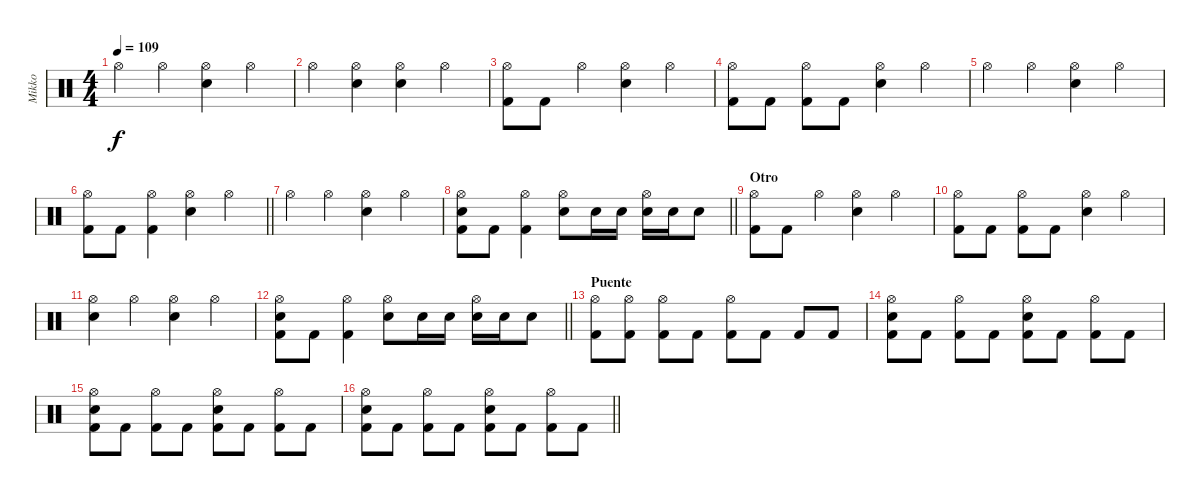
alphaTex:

\track ("Mikko" "Mikko") {instrument percussion}
\staff {score}
\articulation defaults
\ts (4 4)
\tempo 109
\clef neutral
\ks c "Hi-Hat (open)".4{dy f} "Hi-Hat (open)".4
("Hi-Hat (open)" "Snare (hit) 2").4 "Hi-Hat (open)".4 |
"Hi-Hat (open)".4 ("Hi-Hat (open)" "Snare (hit) 2").4 ("Hi-Hat (open)" "Snare (hit) 2").4 "Hi-Hat (open)".4 |
("Hi-Hat (open)" "Kick (hit) 2").8 "Kick (hit) 2".8 "Hi-Hat (open)".4 ("Hi-Hat (open)" "Snare (hit) 2").4 "Hi-Hat (open)".4 |
("Hi-Hat (open)" "Kick (hit) 2").8 "Kick (hit) 2".8 ("Hi-Hat (open)" "Kick (hit) 2").8 "Kick (hit) 2".8 ("Hi-Hat (open)" "Snare (hit) 2").4 "Hi-Hat (open)".4 |
"Hi-Hat (open)".4 "Hi-Hat (open)".4 ("Hi-Hat (open)" "Snare (hit) 2").4 "Hi-Hat (open)".4 |
\barLineRight lightlight
("Hi-Hat (open)" "Kick (hit) 2").8 "Kick (hit) 2".8 ("Hi-Hat (open)" "Kick (hit) 2").4 ("Hi-Hat (open)" "Snare (hit) 2").4 "Hi-Hat (open)".4 |
"Hi-Hat (open)".4 "Hi-Hat (open)".4 ("Hi-Hat (open)" "Snare (hit) 2").4 "Hi-Hat (open)".4 |
\barLineRight lightlight
("Hi-Hat (open)" "Snare (hit) 2" "Kick (hit) 2").8 "Kick (hit) 2".8 ("Hi-Hat (open)" "Kick (hit) 2").4 ("Hi-Hat (open)" "Snare (hit) 2").8 "Snare (hit) 2".16 "Snare (hit) 2".16 ("Hi-Hat (open)" "Snare (hit) 2").16 "Snare (hit) 2".16 "Snare (hit) 2".8 |
\section ("" "Otro")
("Hi-Hat (open)" "Kick (hit) 2").8 "Kick (hit) 2".8 "Hi-Hat (open)".4 ("Hi-Hat (open)" "Snare (hit) 2").4 "Hi-Hat (open)".4 |
("Hi-Hat (open)" "Kick (hit) 2").8 "Kick (hit) 2".8 ("Hi-Hat (open)" "Kick (hit) 2").8 "Kick (hit) 2".8 ("Hi-Hat (open)" "Snare (hit) 2").4 "Hi-Hat (open)".4 |
("Hi-Hat (open)" "Snare (hit) 2").4 "Hi-Hat (open)".4 ("Hi-Hat (open)" "Snare (hit) 2").4 "Hi-Hat (open)".4 |
\barLineRight lightlight
("Hi-Hat (open)" "Snare (hit) 2" "Kick (hit) 2").8 "Kick (hit) 2".8 ("Hi-Hat (open)" "Kick (hit) 2").4 ("Hi-Hat (open)" "Snare (hit) 2").8 "Snare (hit) 2".16 "Snare (hit) 2".16 ("Hi-Hat (open)" "Snare (hit) 2").16 "Snare (hit) 2".16 "Snare (hit) 2".8 |
\section ("" "Puente")
("Hi-Hat (open)" "Kick (hit) 2").8 ("Hi-Hat (open)" "Kick (hit) 2").8 ("Hi-Hat (open)" "Kick (hit) 2").8 "Kick (hit) 2".8 ("Hi-Hat (open)" "Kick (hit) 2").8 "Kick (hit) 2".8 "Kick (hit) 2".8 "Kick (hit) 2".8 |
("Hi-Hat (open)" "Snare (hit) 2" "Kick (hit) 2").8 "Kick (hit) 2".8 ("Hi-Hat (open)" "Kick (hit) 2").8 "Kick (hit) 2".8 ("Hi-Hat (open)" "Snare (hit) 2" "Kick (hit) 2").8 "Kick (hit) 2".8 ("Hi-Hat (open)" "Kick (hit) 2").8 "Kick (hit) 2".8 |
("Hi-Hat (open)" "Snare (hit) 2" "Kick (hit) 2").8 "Kick (hit) 2".8 ("Hi-Hat (open)" "Kick (hit) 2").8 "Kick (hit) 2".8 ("Hi-Hat (open)" "Snare (hit) 2" "Kick (hit) 2").8 "Kick (hit) 2".8 ("Hi-Hat (open)" "Kick (hit) 2").8 "Kick (hit) 2".8 |
\barLineRight lightlight
("Hi-Hat (open)" "Snare (hit) 2" "Kick (hit) 2").8 "Kick (hit) 2".8 ("Hi-Hat (open)" "Kick (hit) 2").8 "Kick (hit) 2".8 ("Hi-Hat (open)" "Snare (hit) 2" "Kick (hit) 2").8 "Kick (hit) 2".8 ("Hi-Hat (open)" "Kick (hit) 2").8 "Kick (hit) 2".8
